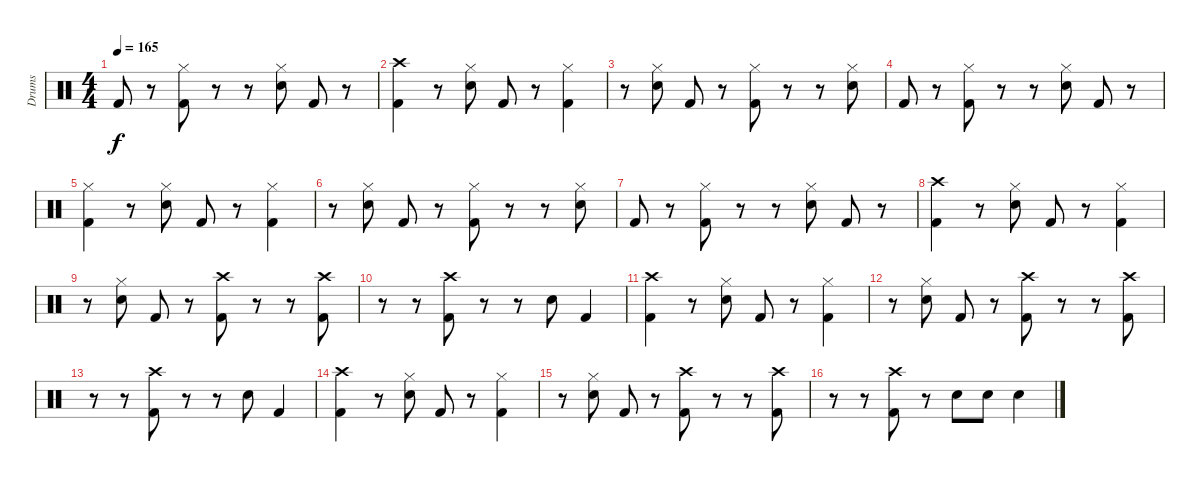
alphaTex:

\track ("Drums" "Drums") {instrument percussion}
\staff {score}
\articulation defaults
\ts (4 4)
\tempo 165
\clef neutral
\ks c "Kick (hit) 2".8{dy f}
r.8 ("Hi-Hat (closed)" "Kick (hit) 2").8 r.8 r.8 ("Hi-Hat (closed)" "Electric Snare (hit)").8 "Kick (hit) 2".8 r.8 |
("Kick (hit) 2" "Crash high (hit)").4 r.8 ("Electric Snare (hit)" "Hi-Hat (closed)").8 "Kick (hit) 2".8 r.8 ("Kick (hit) 2" "Hi-Hat (closed)").4 |
r.8 ("Electric Snare (hit)" "Hi-Hat (closed)").8 "Kick (hit) 2".8 r.8 ("Kick (hit) 2" "Hi-Hat (closed)").8 r.8 r.8 ("Hi-Hat (closed)" "Electric Snare (hit)").8 |
"Kick (hit) 2".8 r.8 ("Hi-Hat (closed)" "Kick (hit) 2").8 r.8 r.8 ("Hi-Hat (closed)" "Electric Snare (hit)").8 "Kick (hit) 2".8 r.8 |
("Kick (hit) 2" "Hi-Hat (closed)").4 r.8 ("Electric Snare (hit)" "Hi-Hat (closed)").8 "Kick (hit) 2".8 r.8 ("Kick (hit) 2" "Hi-Hat (closed)").4 |
r.8 ("Electric Snare (hit)" "Hi-Hat (closed)").8 "Kick (hit) 2".8 r.8 ("Kick (hit) 2" "Hi-Hat (closed)").8 r.8 r.8 ("Hi-Hat (closed)" "Electric Snare (hit)").8 |
"Kick (hit) 2".8 r.8 ("Hi-Hat (closed)" "Kick (hit) 2").8 r.8 r.8 ("Hi-Hat (closed)" "Electric Snare (hit)").8 "Kick (hit) 2".8 r.8 |
("Kick (hit) 2" "Crash high (hit)").4 r.8 ("Electric Snare (hit)" "Hi-Hat (closed)").8 "Kick (hit) 2".8 r.8 ("Kick (hit) 2" "Hi-Hat (closed)").4 |
r.8 ("Electric Snare (hit)" "Hi-Hat (closed)").8 "Kick (hit) 2".8 r.8 ("Crash high (hit)" "Kick (hit) 2").8 r.8 r.8 ("Crash high (hit)" "Kick (hit) 2").8 |
r.8 r.8 ("Crash high (hit)" "Kick (hit) 2").8 r.8 r.8 "Electric Snare (hit)".8 "Kick (hit) 2".4 |
("Kick (hit) 2" "Crash high (hit)").4 r.8 ("Electric Snare (hit)" "Hi-Hat (closed)").8 "Kick (hit) 2".8 r.8 ("Kick (hit) 2" "Hi-Hat (closed)").4 |
r.8 ("Electric Snare (hit)" "Hi-Hat (closed)").8 "Kick (hit) 2".8 r.8 ("Crash high (hit)" "Kick (hit) 2").8 r.8 r.8 ("Crash high (hit)" "Kick (hit) 2").8 |
r.8 r.8 ("Crash high (hit)" "Kick (hit) 2").8 r.8 r.8 "Electric Snare (hit)".8 "Kick (hit) 2".4 |
("Kick (hit) 2" "Crash high (hit)").4 r.8 ("Electric Snare (hit)" "Hi-Hat (closed)").8 "Kick (hit) 2".8 r.8 ("Kick (hit) 2" "Hi-Hat (closed)").4 |
r.8 ("Electric Snare (hit)" "Hi-Hat (closed)").8 "Kick (hit) 2".8 r.8 ("Crash high (hit)" "Kick (hit) 2").8 r.8 r.8 ("Crash high (hit)" "Kick (hit) 2").8 |
r.8 r.8 ("Crash high (hit)" "Kick (hit) 2").8 r.8 "Electric Snare (hit)".8 "Electric Snare (hit)".8 "Electric Snare (hit)".4
